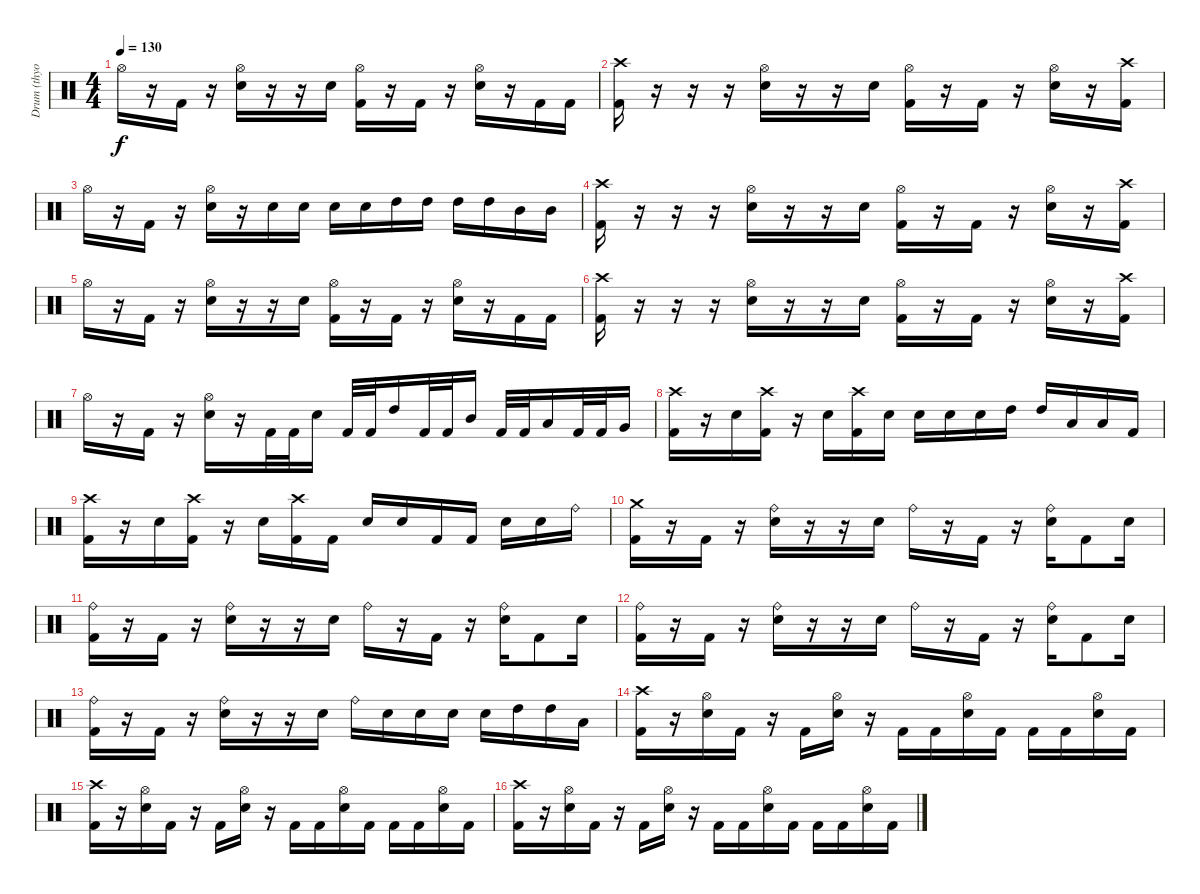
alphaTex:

\track ("Drum (thyo)" "Drum (thyo") {instrument percussion}
\staff {score}
\articulation defaults
\ts (4 4)
\tempo 130
\clef neutral
\ks c "Hi-Hat (open)".16{dy f}
r.16 "Kick (hit) 2".16 r.16 ("Hi-Hat (open)" "Electric Snare (hit)").16 r.16 r.16 "Electric Snare (hit)".16 ("Hi-Hat (open)" "Kick (hit) 2").16 r.16 "Kick (hit) 2".16 r.16 ("Hi-Hat (open)" "Electric Snare (hit)").16 r.16 "Kick (hit) 2".16 "Kick (hit) 2".16 |
("Crash high (hit)" "Kick (hit) 2").16 r.16 r.16 r.16 ("Hi-Hat (open)" "Electric Snare (hit)").16 r.16 r.16 "Electric Snare (hit)".16 ("Hi-Hat (open)" "Kick (hit) 2").16 r.16 "Kick (hit) 2".16 r.16 ("Hi-Hat (open)" "Electric Snare (hit)").16 r.16 ("Crash high (hit)" "Kick (hit) 2").16 |
"Hi-Hat (open)".16 r.16 "Kick (hit) 2".16 r.16 ("Hi-Hat (open)" "Electric Snare (hit)").16 r.16 "Electric Snare (hit)".16 "Electric Snare (hit)".16 "Electric Snare (hit)".16 "Electric Snare (hit)".16 "High Tom (hit)".16 "High Tom (hit)".16 "High Tom (hit)".16 "High Tom (hit)".16 "Mid Tom (hit)".16 "Mid Tom (hit)".16 |
("Crash high (hit)" "Kick (hit) 2").16 r.16 r.16 r.16 ("Hi-Hat (open)" "Electric Snare (hit)").16 r.16 r.16 "Electric Snare (hit)".16 ("Hi-Hat (open)" "Kick (hit) 2").16 r.16 "Kick (hit) 2".16 r.16 ("Hi-Hat (open)" "Electric Snare (hit)").16 r.16 ("Crash high (hit)" "Kick (hit) 2").16 |
"Hi-Hat (open)".16 r.16 "Kick (hit) 2".16 r.16 ("Hi-Hat (open)" "Electric Snare (hit)").16 r.16 r.16 "Electric Snare (hit)".16 ("Hi-Hat (open)" "Kick (hit) 2").16 r.16 "Kick (hit) 2".16 r.16 ("Hi-Hat (open)" "Electric Snare (hit)").16 r.16 "Kick (hit) 2".16 "Kick (hit) 2".16 |
("Crash high (hit)" "Kick (hit) 2").16 r.16 r.16 r.16 ("Hi-Hat (open)" "Electric Snare (hit)").16 r.16 r.16 "Electric Snare (hit)".16 ("Hi-Hat (open)" "Kick (hit) 2").16 r.16 "Kick (hit) 2".16 r.16 ("Hi-Hat (open)" "Electric Snare (hit)").16 r.16 ("Crash high (hit)" "Kick (hit) 2").16 |
"Hi-Hat (open)".16 r.16 "Kick (hit) 2".16 r.16 ("Hi-Hat (open)" "Electric Snare (hit)").16 r.16 "Kick (hit) 2".32 "Kick (hit) 2".32 "Electric Snare (hit)".16 "Kick (hit) 2".32 "Kick (hit) 2".32 "High Tom (hit)".16 "Kick (hit) 2".32 "Kick (hit) 2".32 "Mid Tom (hit)".16 "Kick (hit) 2".32 "Kick (hit) 2".32 "Low Tom (hit)".16 "Kick (hit) 2".32 "Kick (hit) 2".32 "Very Low Tom (hit)".16 |
("Crash high (hit)" "Kick (hit) 2").16 r.16 "Electric Snare (hit)".16 ("Crash high (hit)" "Kick (hit) 2").16 r.16 "Electric Snare (hit)".16 ("Crash high (hit)" "Kick (hit) 2").16 "Electric Snare (hit)".16 "Electric Snare (hit)".16 "Electric Snare (hit)".16 "Electric Snare (hit)".16 "High Tom (hit)".16 "High Tom (hit)".16 "Low Tom (hit)".16 "Low Tom (hit)".16 "Kick (hit) 2".16 |
("Crash high (hit)" "Kick (hit) 2").16 r.16 "Electric Snare (hit)".16 ("Crash high (hit)" "Kick (hit) 2").16 r.16 "Electric Snare (hit)".16 ("Crash high (hit)" "Kick (hit) 2").16 "Kick (hit) 2".16 "Electric Snare (hit)".16 "Electric Snare (hit)".16 "Kick (hit) 2".16 "Kick (hit) 2".16 "Electric Snare (hit)".16 "Electric Snare (hit)".16 "Ride (bell)".16 |
("Crash medium (hit)" "Kick (hit) 2").16 r.16 "Kick (hit) 2".16 r.16 ("Electric Snare (hit)" "Ride (bell)").16 r.16 r.16 "Electric Snare (hit)".16 "Ride (bell)".16 r.16 "Kick (hit) 2".16 r.16 ("Electric Snare (hit)" "Ride (bell)").16 "Kick (hit) 2".8 "Electric Snare (hit)".16 |
("Ride (bell)" "Kick (hit) 2").16 r.16 "Kick (hit) 2".16 r.16 ("Electric Snare (hit)" "Ride (bell)").16 r.16 r.16 "Electric Snare (hit)".16 "Ride (bell)".16 r.16 "Kick (hit) 2".16 r.16 ("Electric Snare (hit)" "Ride (bell)").16 "Kick (hit) 2".8 "Electric Snare (hit)".16 |
("Ride (bell)" "Kick (hit) 2").16 r.16 "Kick (hit) 2".16 r.16 ("Electric Snare (hit)" "Ride (bell)").16 r.16 r.16 "Electric Snare (hit)".16 "Ride (bell)".16 r.16 "Kick (hit) 2".16 r.16 ("Electric Snare (hit)" "Ride (bell)").16 "Kick (hit) 2".8 "Electric Snare (hit)".16 |
("Ride (bell)" "Kick (hit) 2").16 r.16 "Kick (hit) 2".16 r.16 ("Electric Snare (hit)" "Ride (bell)").16 r.16 r.16 "Electric Snare (hit)".16 "Ride (bell)".16 "Electric Snare (hit)".16 "Electric Snare (hit)".16 "Electric Snare (hit)".16 "Electric Snare (hit)".16 "High Tom (hit)".16 "High Tom (hit)".16 "Low Tom (hit)".16 |
("Crash high (hit)" "Kick (hit) 2").16 r.16 ("Hi-Hat (open)" "Electric Snare (hit)").16 "Kick (hit) 2".16 r.16 "Kick (hit) 2".16 ("Hi-Hat (open)" "Electric Snare (hit)").16 r.16 "Kick (hit) 2".16 "Kick (hit) 2".16 ("Hi-Hat (open)" "Electric Snare (hit)").16 "Kick (hit) 2".16 "Kick (hit) 2".16 "Kick (hit) 2".16 ("Hi-Hat (open)" "Electric Snare (hit)").16 "Kick (hit) 2".16 |
("Crash high (hit)" "Kick (hit) 2").16 r.16 ("Hi-Hat (open)" "Electric Snare (hit)").16 "Kick (hit) 2".16 r.16 "Kick (hit) 2".16 ("Hi-Hat (open)" "Electric Snare (hit)").16 r.16 "Kick (hit) 2".16 "Kick (hit) 2".16 ("Hi-Hat (open)" "Electric Snare (hit)").16 "Kick (hit) 2".16 "Kick (hit) 2".16 "Kick (hit) 2".16 ("Hi-Hat (open)" "Electric Snare (hit)").16 "Kick (hit) 2".16 |
("Crash high (hit)" "Kick (hit) 2").16 r.16 ("Hi-Hat (open)" "Electric Snare (hit)").16 "Kick (hit) 2".16 r.16 "Kick (hit) 2".16 ("Hi-Hat (open)" "Electric Snare (hit)").16 r.16 "Kick (hit) 2".16 "Kick (hit) 2".16 ("Hi-Hat (open)" "Electric Snare (hit)").16 "Kick (hit) 2".16 "Kick (hit) 2".16 "Kick (hit) 2".16 ("Hi-Hat (open)" "Electric Snare (hit)").16 "Kick (hit) 2".16
